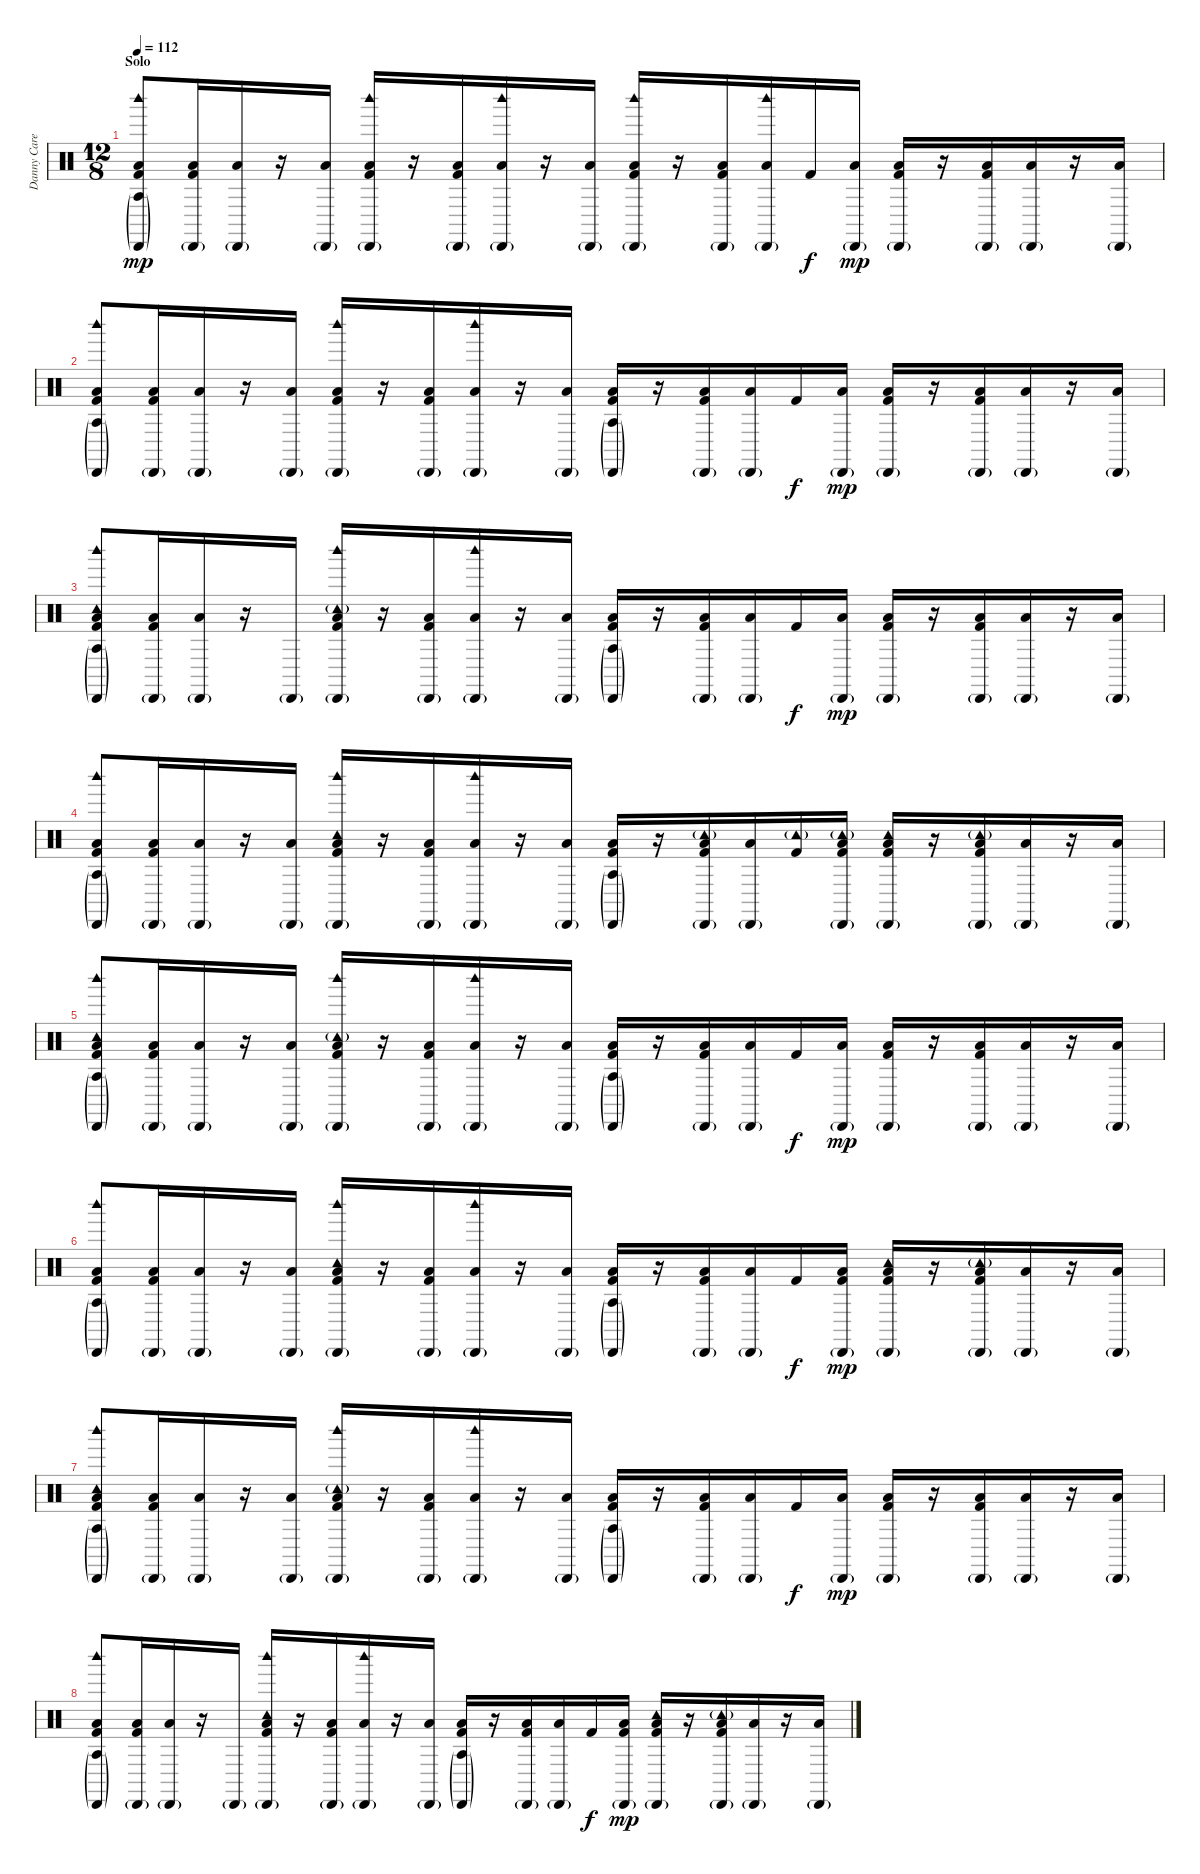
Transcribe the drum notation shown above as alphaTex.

\track ("Danny Carey" "Danny Care") {instrument percussion}
\staff {score}
\articulation defaults
\ts (12 8)
\section ("" "Solo")
\tempo 112
\clef neutral
\ks c
("Low Floor Tom (hit)" "Agogo tow (hit)"{g} "Cabasa (hit)"{g} "Woodblock high (hit)" "Kick (hit) 2").8{dy mp} ("Low Floor Tom (hit)" "Cabasa (hit)"{g} "Kick (hit) 2").16 ("Low Floor Tom (hit)" "Cabasa (hit)"{g}).16 r.16 ("Low Floor Tom (hit)" "Cabasa (hit)"{g}).16 ("Low Floor Tom (hit)" "Cabasa (hit)"{g} "Woodblock high (hit)" "Kick (hit) 2").16 r.16 ("Low Floor Tom (hit)" "Cabasa (hit)"{g} "Kick (hit) 2").16 ("Low Floor Tom (hit)" "Cabasa (hit)"{g} "Woodblock high (hit)").16 r.16 ("Low Floor Tom (hit)" "Cabasa (hit)"{g}).16 ("Low Floor Tom (hit)" "Cabasa (hit)"{g} "Woodblock high (hit)" "Kick (hit) 2").16 r.16 ("Low Floor Tom (hit)" "Cabasa (hit)"{g} "Kick (hit) 2").16 ("Low Floor Tom (hit)" "Cabasa (hit)"{g} "Woodblock high (hit)").16 "Kick (hit) 2".16{dy f} ("Low Floor Tom (hit)" "Cabasa (hit)"{g}).16{dy mp} ("Low Floor Tom (hit)" "Cabasa (hit)"{g} "Kick (hit) 2").16 r.16 ("Low Floor Tom (hit)" "Cabasa (hit)"{g} "Kick (hit) 2").16 ("Low Floor Tom (hit)" "Cabasa (hit)"{g}).16 r.16 ("Low Floor Tom (hit)" "Cabasa (hit)"{g}).16 |
("Low Floor Tom (hit)" "Agogo tow (hit)"{g} "Cabasa (hit)"{g} "Woodblock high (hit)" "Kick (hit) 2").8 ("Low Floor Tom (hit)" "Cabasa (hit)"{g} "Kick (hit) 2").16 ("Low Floor Tom (hit)" "Cabasa (hit)"{g}).16 r.16 ("Low Floor Tom (hit)" "Cabasa (hit)"{g}).16 ("Low Floor Tom (hit)" "Cabasa (hit)"{g} "Woodblock high (hit)" "Kick (hit) 2").16 r.16 ("Low Floor Tom (hit)" "Cabasa (hit)"{g} "Kick (hit) 2").16 ("Low Floor Tom (hit)" "Cabasa (hit)"{g} "Woodblock high (hit)").16 r.16 ("Low Floor Tom (hit)" "Cabasa (hit)"{g}).16 ("Low Floor Tom (hit)" "Agogo tow (hit)"{g} "Cabasa (hit)"{g} "Kick (hit) 2").16 r.16 ("Low Floor Tom (hit)" "Cabasa (hit)"{g} "Kick (hit) 2").16 ("Low Floor Tom (hit)" "Cabasa (hit)"{g}).16 "Kick (hit) 2".16{dy f} ("Low Floor Tom (hit)" "Cabasa (hit)"{g}).16{dy mp} ("Low Floor Tom (hit)" "Cabasa (hit)"{g} "Kick (hit) 2").16 r.16 ("Low Floor Tom (hit)" "Cabasa (hit)"{g} "Kick (hit) 2").16 ("Low Floor Tom (hit)" "Cabasa (hit)"{g}).16 r.16 ("Low Floor Tom (hit)" "Cabasa (hit)"{g}).16 |
("Low Floor Tom (hit)" "Tambourine (hit)" "Agogo tow (hit)"{g} "Cabasa (hit)"{g} "Woodblock high (hit)" "Kick (hit) 2").8 ("Low Floor Tom (hit)" "Cabasa (hit)"{g} "Kick (hit) 2").16 ("Low Floor Tom (hit)" "Cabasa (hit)"{g}).16 r.16 "Cabasa (hit)"{g}.16 ("Low Floor Tom (hit)" "Tambourine (hit)"{g} "Cabasa (hit)"{g} "Woodblock high (hit)" "Kick (hit) 2").16 r.16 ("Low Floor Tom (hit)" "Cabasa (hit)"{g} "Kick (hit) 2").16 ("Low Floor Tom (hit)" "Cabasa (hit)"{g} "Woodblock high (hit)").16 r.16 ("Low Floor Tom (hit)" "Cabasa (hit)"{g}).16 ("Low Floor Tom (hit)" "Agogo tow (hit)"{g} "Cabasa (hit)"{g} "Kick (hit) 2").16 r.16 ("Low Floor Tom (hit)" "Cabasa (hit)"{g} "Kick (hit) 2").16 ("Low Floor Tom (hit)" "Cabasa (hit)"{g}).16 "Kick (hit) 2".16{dy f} ("Low Floor Tom (hit)" "Cabasa (hit)"{g}).16{dy mp} ("Low Floor Tom (hit)" "Cabasa (hit)"{g} "Kick (hit) 2").16 r.16 ("Low Floor Tom (hit)" "Cabasa (hit)"{g} "Kick (hit) 2").16 ("Low Floor Tom (hit)" "Cabasa (hit)"{g}).16 r.16 ("Low Floor Tom (hit)" "Cabasa (hit)"{g}).16 |
("Low Floor Tom (hit)" "Agogo tow (hit)"{g} "Cabasa (hit)"{g} "Woodblock high (hit)" "Kick (hit) 2").8 ("Low Floor Tom (hit)" "Cabasa (hit)"{g} "Kick (hit) 2").16 ("Low Floor Tom (hit)" "Cabasa (hit)"{g}).16 r.16 ("Low Floor Tom (hit)" "Cabasa (hit)"{g}).16 ("Low Floor Tom (hit)" "Tambourine (hit)" "Cabasa (hit)"{g} "Woodblock high (hit)" "Kick (hit) 2").16 r.16 ("Low Floor Tom (hit)" "Cabasa (hit)"{g} "Kick (hit) 2").16 ("Low Floor Tom (hit)" "Cabasa (hit)"{g} "Woodblock high (hit)").16 r.16 ("Low Floor Tom (hit)" "Cabasa (hit)"{g}).16 ("Low Floor Tom (hit)" "Agogo tow (hit)"{g} "Cabasa (hit)"{g} "Kick (hit) 2").16 r.16 ("Low Floor Tom (hit)" "Tambourine (hit)"{g} "Cabasa (hit)"{g} "Kick (hit) 2").16 ("Low Floor Tom (hit)" "Cabasa (hit)"{g}).16 ("Tambourine (hit)"{g} "Kick (hit) 2").16 ("Low Floor Tom (hit)" "Tambourine (hit)"{g} "Cabasa (hit)"{g} "Kick (hit) 2").16 ("Low Floor Tom (hit)" "Tambourine (hit)" "Cabasa (hit)"{g} "Kick (hit) 2").16 r.16 ("Low Floor Tom (hit)" "Tambourine (hit)"{g} "Cabasa (hit)"{g} "Kick (hit) 2").16 ("Low Floor Tom (hit)" "Cabasa (hit)"{g}).16 r.16 ("Low Floor Tom (hit)" "Cabasa (hit)"{g}).16 |
("Low Floor Tom (hit)" "Tambourine (hit)" "Agogo tow (hit)"{g} "Cabasa (hit)"{g} "Woodblock high (hit)" "Kick (hit) 2").8 ("Low Floor Tom (hit)" "Cabasa (hit)"{g} "Kick (hit) 2").16 ("Low Floor Tom (hit)" "Cabasa (hit)"{g}).16 r.16 ("Low Floor Tom (hit)" "Cabasa (hit)"{g}).16 ("Low Floor Tom (hit)" "Tambourine (hit)"{g} "Cabasa (hit)"{g} "Woodblock high (hit)" "Kick (hit) 2").16 r.16 ("Low Floor Tom (hit)" "Cabasa (hit)"{g} "Kick (hit) 2").16 ("Low Floor Tom (hit)" "Cabasa (hit)"{g} "Woodblock high (hit)").16 r.16 ("Low Floor Tom (hit)" "Cabasa (hit)"{g}).16 ("Low Floor Tom (hit)" "Agogo tow (hit)"{g} "Cabasa (hit)"{g} "Kick (hit) 2").16 r.16 ("Low Floor Tom (hit)" "Cabasa (hit)"{g} "Kick (hit) 2").16 ("Low Floor Tom (hit)" "Cabasa (hit)"{g}).16 "Kick (hit) 2".16{dy f} ("Low Floor Tom (hit)" "Cabasa (hit)"{g}).16{dy mp} ("Low Floor Tom (hit)" "Cabasa (hit)"{g} "Kick (hit) 2").16 r.16 ("Low Floor Tom (hit)" "Cabasa (hit)"{g} "Kick (hit) 2").16 ("Low Floor Tom (hit)" "Cabasa (hit)"{g}).16 r.16 ("Low Floor Tom (hit)" "Cabasa (hit)"{g}).16 |
("Low Floor Tom (hit)" "Agogo tow (hit)"{g} "Cabasa (hit)"{g} "Woodblock high (hit)" "Kick (hit) 2").8 ("Low Floor Tom (hit)" "Cabasa (hit)"{g} "Kick (hit) 2").16 ("Low Floor Tom (hit)" "Cabasa (hit)"{g}).16 r.16 ("Low Floor Tom (hit)" "Cabasa (hit)"{g}).16 ("Low Floor Tom (hit)" "Tambourine (hit)" "Cabasa (hit)"{g} "Woodblock high (hit)" "Kick (hit) 2").16 r.16 ("Low Floor Tom (hit)" "Cabasa (hit)"{g} "Kick (hit) 2").16 ("Low Floor Tom (hit)" "Cabasa (hit)"{g} "Woodblock high (hit)").16 r.16 ("Low Floor Tom (hit)" "Cabasa (hit)"{g}).16 ("Low Floor Tom (hit)" "Agogo tow (hit)"{g} "Cabasa (hit)"{g} "Kick (hit) 2").16 r.16 ("Low Floor Tom (hit)" "Cabasa (hit)"{g} "Kick (hit) 2").16 ("Low Floor Tom (hit)" "Cabasa (hit)"{g}).16 "Kick (hit) 2".16{dy f} ("Low Floor Tom (hit)" "Cabasa (hit)"{g} "Kick (hit) 2").16{dy mp} ("Low Floor Tom (hit)" "Tambourine (hit)" "Cabasa (hit)"{g} "Kick (hit) 2").16 r.16 ("Low Floor Tom (hit)" "Tambourine (hit)"{g} "Cabasa (hit)"{g} "Kick (hit) 2").16 ("Low Floor Tom (hit)" "Cabasa (hit)"{g}).16 r.16 ("Low Floor Tom (hit)" "Cabasa (hit)"{g}).16 |
("Low Floor Tom (hit)" "Tambourine (hit)" "Agogo tow (hit)"{g} "Cabasa (hit)"{g} "Woodblock high (hit)" "Kick (hit) 2").8 ("Low Floor Tom (hit)" "Cabasa (hit)"{g} "Kick (hit) 2").16 ("Low Floor Tom (hit)" "Cabasa (hit)"{g}).16 r.16 ("Low Floor Tom (hit)" "Cabasa (hit)"{g}).16 ("Low Floor Tom (hit)" "Tambourine (hit)"{g} "Cabasa (hit)"{g} "Woodblock high (hit)" "Kick (hit) 2").16 r.16 ("Low Floor Tom (hit)" "Cabasa (hit)"{g} "Kick (hit) 2").16 ("Low Floor Tom (hit)" "Cabasa (hit)"{g} "Woodblock high (hit)").16 r.16 ("Low Floor Tom (hit)" "Cabasa (hit)"{g}).16 ("Low Floor Tom (hit)" "Agogo tow (hit)"{g} "Cabasa (hit)"{g} "Kick (hit) 2").16 r.16 ("Low Floor Tom (hit)" "Cabasa (hit)"{g} "Kick (hit) 2").16 ("Low Floor Tom (hit)" "Cabasa (hit)"{g}).16 "Kick (hit) 2".16{dy f} ("Low Floor Tom (hit)" "Cabasa (hit)"{g}).16{dy mp} ("Low Floor Tom (hit)" "Cabasa (hit)"{g} "Kick (hit) 2").16 r.16 ("Low Floor Tom (hit)" "Cabasa (hit)"{g} "Kick (hit) 2").16 ("Low Floor Tom (hit)" "Cabasa (hit)"{g}).16 r.16 ("Low Floor Tom (hit)" "Cabasa (hit)"{g}).16 |
("Low Floor Tom (hit)" "Agogo tow (hit)"{g} "Cabasa (hit)"{g} "Woodblock high (hit)" "Kick (hit) 2").8 ("Low Floor Tom (hit)" "Cabasa (hit)"{g} "Kick (hit) 2").16 ("Low Floor Tom (hit)" "Cabasa (hit)"{g}).16 r.16 "Cabasa (hit)"{g}.16 ("Low Floor Tom (hit)" "Tambourine (hit)" "Cabasa (hit)"{g} "Woodblock high (hit)" "Kick (hit) 2").16 r.16 ("Low Floor Tom (hit)" "Cabasa (hit)"{g} "Kick (hit) 2").16 ("Low Floor Tom (hit)" "Cabasa (hit)"{g} "Woodblock high (hit)").16 r.16 ("Low Floor Tom (hit)" "Cabasa (hit)"{g}).16 ("Low Floor Tom (hit)" "Agogo tow (hit)"{g} "Cabasa (hit)"{g} "Kick (hit) 2").16 r.16 ("Low Floor Tom (hit)" "Cabasa (hit)"{g} "Kick (hit) 2").16 ("Low Floor Tom (hit)" "Cabasa (hit)"{g}).16 "Kick (hit) 2".16{dy f} ("Low Floor Tom (hit)" "Cabasa (hit)"{g} "Kick (hit) 2").16{dy mp} ("Low Floor Tom (hit)" "Tambourine (hit)" "Cabasa (hit)"{g} "Kick (hit) 2").16 r.16 ("Low Floor Tom (hit)" "Tambourine (hit)"{g} "Cabasa (hit)"{g} "Kick (hit) 2").16 ("Low Floor Tom (hit)" "Cabasa (hit)"{g}).16 r.16 ("Low Floor Tom (hit)" "Cabasa (hit)"{g}).16
